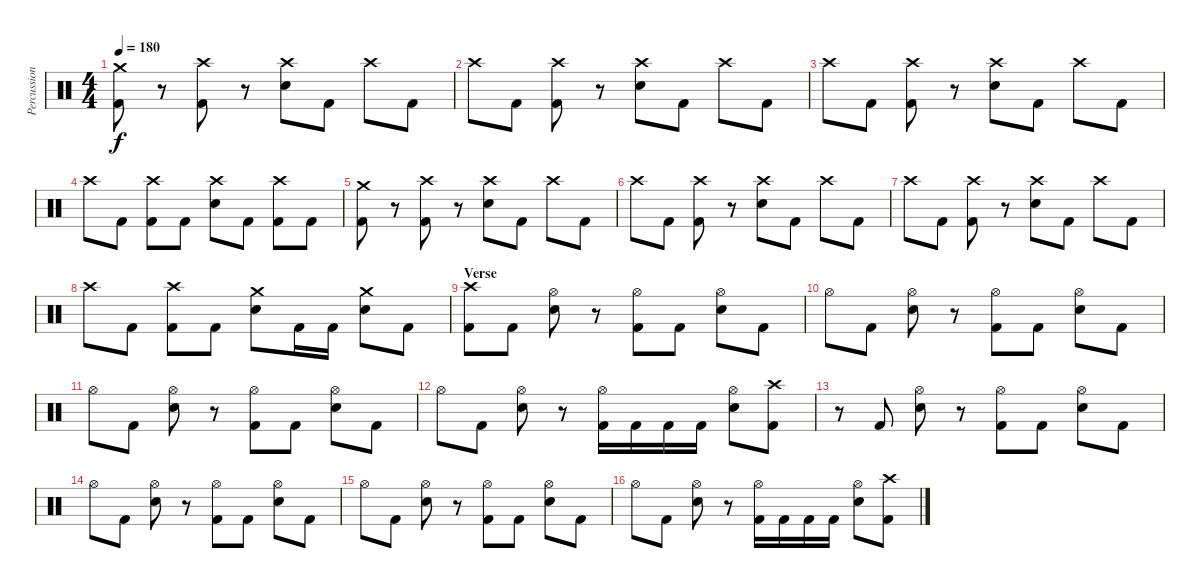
\track ("Percussion" "Percussion") {instrument percussion}
\staff {score}
\articulation defaults
\ts (4 4)
\tempo 180
\clef neutral
\ks c
("Crash medium (hit)" "Kick (hit) 2").8{dy f} r.8 ("Crash high (hit)" "Kick (hit) 2").8 r.8 ("Crash high (hit)" "Electric Snare (hit)").8 "Kick (hit) 2".8 "Crash high (hit)".8 "Kick (hit) 2".8 |
"Crash high (hit)".8 "Kick (hit) 2".8 ("Crash high (hit)" "Kick (hit) 2").8 r.8 ("Crash high (hit)" "Electric Snare (hit)").8 "Kick (hit) 2".8 "Crash high (hit)".8 "Kick (hit) 2".8 |
"Crash high (hit)".8 "Kick (hit) 2".8 ("Crash high (hit)" "Kick (hit) 2").8 r.8 ("Crash high (hit)" "Electric Snare (hit)").8 "Kick (hit) 2".8 "Crash high (hit)".8 "Kick (hit) 2".8 |
"Crash high (hit)".8 "Kick (hit) 2".8 ("Crash high (hit)" "Kick (hit) 2").8 "Kick (hit) 2".8 ("Crash high (hit)" "Electric Snare (hit)").8 "Kick (hit) 2".8 ("Crash high (hit)" "Kick (hit) 2").8 "Kick (hit) 2".8 |
("Crash medium (hit)" "Kick (hit) 2").8 r.8 ("Crash high (hit)" "Kick (hit) 2").8 r.8 ("Crash high (hit)" "Electric Snare (hit)").8 "Kick (hit) 2".8 "Crash high (hit)".8 "Kick (hit) 2".8 |
"Crash high (hit)".8 "Kick (hit) 2".8 ("Crash high (hit)" "Kick (hit) 2").8 r.8 ("Crash high (hit)" "Electric Snare (hit)").8 "Kick (hit) 2".8 "Crash high (hit)".8 "Kick (hit) 2".8 |
"Crash high (hit)".8 "Kick (hit) 2".8 ("Crash high (hit)" "Kick (hit) 2").8 r.8 ("Crash high (hit)" "Electric Snare (hit)").8 "Kick (hit) 2".8 "Crash high (hit)".8 "Kick (hit) 2".8 |
"Crash high (hit)".8 "Kick (hit) 2".8 ("Crash high (hit)" "Kick (hit) 2").8 "Kick (hit) 2".8 ("Crash medium (hit)" "Electric Snare (hit)").8 "Kick (hit) 2".16 "Kick (hit) 2".16 ("Crash medium (hit)" "Electric Snare (hit)").8 "Kick (hit) 2".8 |
\section ("" "Verse")
("Crash high (hit)" "Kick (hit) 2").8 "Kick (hit) 2".8 ("Hi-Hat (open)" "Electric Snare (hit)").8 r.8 ("Hi-Hat (open)" "Kick (hit) 2").8 "Kick (hit) 2".8 ("Hi-Hat (open)" "Electric Snare (hit)").8 "Kick (hit) 2".8 |
"Hi-Hat (open)".8 "Kick (hit) 2".8 ("Hi-Hat (open)" "Electric Snare (hit)").8 r.8 ("Hi-Hat (open)" "Kick (hit) 2").8 "Kick (hit) 2".8 ("Hi-Hat (open)" "Electric Snare (hit)").8 "Kick (hit) 2".8 |
"Hi-Hat (open)".8 "Kick (hit) 2".8 ("Hi-Hat (open)" "Electric Snare (hit)").8 r.8 ("Hi-Hat (open)" "Kick (hit) 2").8 "Kick (hit) 2".8 ("Hi-Hat (open)" "Electric Snare (hit)").8 "Kick (hit) 2".8 |
"Hi-Hat (open)".8 "Kick (hit) 2".8 ("Hi-Hat (open)" "Electric Snare (hit)").8 r.8 ("Hi-Hat (open)" "Kick (hit) 2").16 "Kick (hit) 2".16 "Kick (hit) 2".16 "Kick (hit) 2".16 ("Hi-Hat (open)" "Electric Snare (hit)").8 ("Crash high (hit)" "Kick (hit) 2").8 |
r.8 "Kick (hit) 2".8 ("Hi-Hat (open)" "Electric Snare (hit)").8 r.8 ("Hi-Hat (open)" "Kick (hit) 2").8 "Kick (hit) 2".8 ("Hi-Hat (open)" "Electric Snare (hit)").8 "Kick (hit) 2".8 |
"Hi-Hat (open)".8 "Kick (hit) 2".8 ("Hi-Hat (open)" "Electric Snare (hit)").8 r.8 ("Hi-Hat (open)" "Kick (hit) 2").8 "Kick (hit) 2".8 ("Hi-Hat (open)" "Electric Snare (hit)").8 "Kick (hit) 2".8 |
"Hi-Hat (open)".8 "Kick (hit) 2".8 ("Hi-Hat (open)" "Electric Snare (hit)").8 r.8 ("Hi-Hat (open)" "Kick (hit) 2").8 "Kick (hit) 2".8 ("Hi-Hat (open)" "Electric Snare (hit)").8 "Kick (hit) 2".8 |
"Hi-Hat (open)".8 "Kick (hit) 2".8 ("Hi-Hat (open)" "Electric Snare (hit)").8 r.8 ("Hi-Hat (open)" "Kick (hit) 2").16 "Kick (hit) 2".16 "Kick (hit) 2".16 "Kick (hit) 2".16 ("Hi-Hat (open)" "Electric Snare (hit)").8 ("Crash high (hit)" "Kick (hit) 2").8
